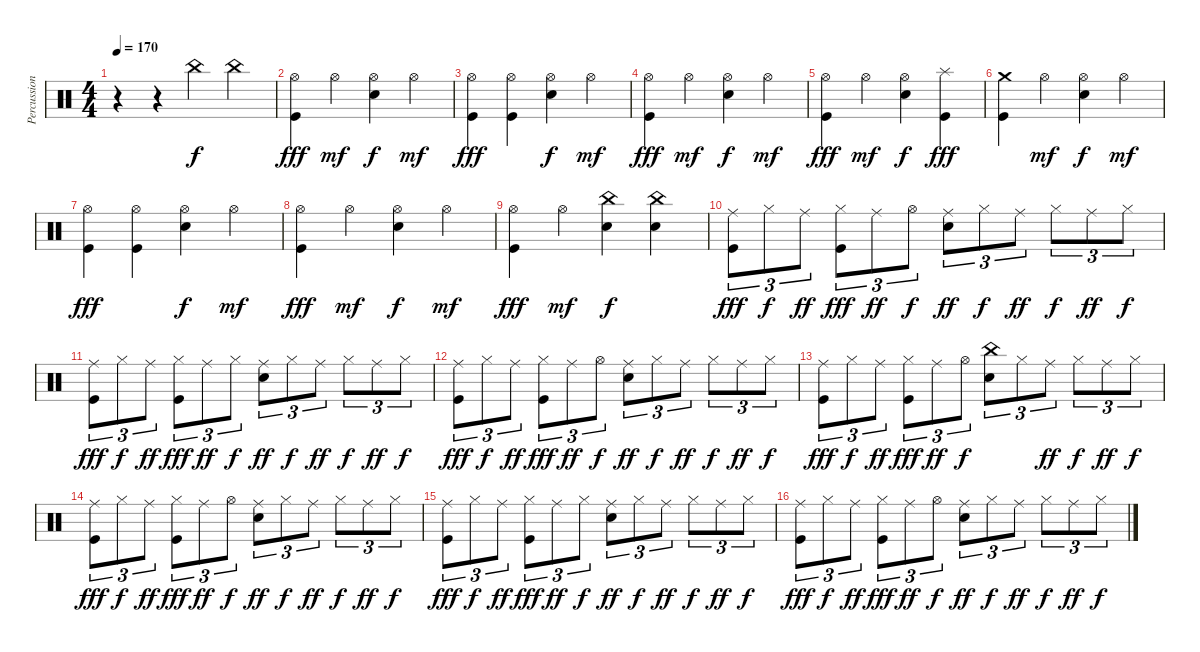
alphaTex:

\track ("Percussion" "Percussion") {instrument percussion}
\staff {score}
\articulation defaults
\ts (4 4)
\tempo 170
\clef neutral
\ks c
r.4{dy f} r.4 "China (hit)".4 "China (hit)".4 |
("Hi-Hat (open)" "Kick (hit)").4{dy fff} "Hi-Hat (open)".4{dy mf} ("Hi-Hat (open)" "Electric Snare (hit)").4{dy f} "Hi-Hat (open)".4{dy mf} |
("Hi-Hat (open)" "Kick (hit)").4{dy fff} ("Hi-Hat (open)" "Kick (hit)").4 ("Hi-Hat (open)" "Electric Snare (hit)").4{dy f} "Hi-Hat (open)".4{dy mf} |
("Hi-Hat (open)" "Kick (hit)").4{dy fff} "Hi-Hat (open)".4{dy mf} ("Hi-Hat (open)" "Electric Snare (hit)").4{dy f} "Hi-Hat (open)".4{dy mf} |
("Hi-Hat (open)" "Kick (hit)").4{dy fff} "Hi-Hat (open)".4{dy mf} ("Hi-Hat (open)" "Electric Snare (hit)").4{dy f} ("Splash (hit)" "Kick (hit)").4{dy fff} |
("Crash medium (hit)" "Kick (hit)").4 "Hi-Hat (open)".4{dy mf} ("Hi-Hat (open)" "Electric Snare (hit)").4{dy f} "Hi-Hat (open)".4{dy mf} |
("Hi-Hat (open)" "Kick (hit)").4{dy fff} ("Hi-Hat (open)" "Kick (hit)").4 ("Hi-Hat (open)" "Electric Snare (hit)").4{dy f} "Hi-Hat (open)".4{dy mf} |
("Hi-Hat (open)" "Kick (hit)").4{dy fff} "Hi-Hat (open)".4{dy mf} ("Hi-Hat (open)" "Electric Snare (hit)").4{dy f} "Hi-Hat (open)".4{dy mf} |
("Hi-Hat (open)" "Kick (hit)").4{dy fff} "Hi-Hat (open)".4{dy mf} ("China (hit)" "Electric Snare (hit)").4{dy f} ("China (hit)" "Electric Snare (hit)").4 |
("Ride (middle)" "Kick (hit)").8{tu (3 2) dy fff} "Hi-Hat (closed)".8{tu (3 2) dy f} "Ride (middle)".8{tu (3 2) dy ff} ("Hi-Hat (closed)" "Kick (hit)").8{tu (3 2) dy fff} "Ride (middle)".8{tu (3 2) dy ff} "Hi-Hat (open)".8{tu (3 2) dy f} ("Ride (middle)" "Electric Snare (hit)").8{tu (3 2) dy ff} "Hi-Hat (closed)".8{tu (3 2) dy f} "Ride (middle)".8{tu (3 2) dy ff} "Hi-Hat (closed)".8{tu (3 2) dy f} "Ride (middle)".8{tu (3 2) dy ff} "Hi-Hat (closed)".8{tu (3 2) dy f} |
("Ride (middle)" "Kick (hit)").8{tu (3 2) dy fff} "Hi-Hat (closed)".8{tu (3 2) dy f} "Ride (middle)".8{tu (3 2) dy ff} ("Hi-Hat (closed)" "Kick (hit)").8{tu (3 2) dy fff} "Ride (middle)".8{tu (3 2) dy ff} "Hi-Hat (closed)".8{tu (3 2) dy f} ("Ride (middle)" "Electric Snare (hit)").8{tu (3 2) dy ff} "Hi-Hat (closed)".8{tu (3 2) dy f} "Ride (middle)".8{tu (3 2) dy ff} "Hi-Hat (closed)".8{tu (3 2) dy f} "Ride (middle)".8{tu (3 2) dy ff} "Hi-Hat (closed)".8{tu (3 2) dy f} |
("Ride (middle)" "Kick (hit)").8{tu (3 2) dy fff} "Hi-Hat (closed)".8{tu (3 2) dy f} "Ride (middle)".8{tu (3 2) dy ff} ("Hi-Hat (closed)" "Kick (hit)").8{tu (3 2) dy fff} "Ride (middle)".8{tu (3 2) dy ff} "Hi-Hat (open)".8{tu (3 2) dy f} ("Ride (middle)" "Electric Snare (hit)").8{tu (3 2) dy ff} "Hi-Hat (closed)".8{tu (3 2) dy f} "Ride (middle)".8{tu (3 2) dy ff} "Hi-Hat (closed)".8{tu (3 2) dy f} "Ride (middle)".8{tu (3 2) dy ff} "Hi-Hat (closed)".8{tu (3 2) dy f} |
("Ride (middle)" "Kick (hit)").8{tu (3 2) dy fff} "Hi-Hat (closed)".8{tu (3 2) dy f} "Ride (middle)".8{tu (3 2) dy ff} ("Hi-Hat (closed)" "Kick (hit)").8{tu (3 2) dy fff} "Ride (middle)".8{tu (3 2) dy ff} "Hi-Hat (open)".8{tu (3 2) dy f} ("China (hit)" "Electric Snare (hit)").8{tu (3 2)} "Hi-Hat (closed)".8{tu (3 2)} "Ride (middle)".8{tu (3 2) dy ff} "Hi-Hat (closed)".8{tu (3 2) dy f} "Ride (middle)".8{tu (3 2) dy ff} "Hi-Hat (closed)".8{tu (3 2) dy f} |
("Ride (middle)" "Kick (hit)").8{tu (3 2) dy fff} "Hi-Hat (closed)".8{tu (3 2) dy f} "Ride (middle)".8{tu (3 2) dy ff} ("Hi-Hat (closed)" "Kick (hit)").8{tu (3 2) dy fff} "Ride (middle)".8{tu (3 2) dy ff} "Hi-Hat (open)".8{tu (3 2) dy f} ("Ride (middle)" "Electric Snare (hit)").8{tu (3 2) dy ff} "Hi-Hat (closed)".8{tu (3 2) dy f} "Ride (middle)".8{tu (3 2) dy ff} "Hi-Hat (closed)".8{tu (3 2) dy f} "Ride (middle)".8{tu (3 2) dy ff} "Hi-Hat (closed)".8{tu (3 2) dy f} |
("Ride (middle)" "Kick (hit)").8{tu (3 2) dy fff} "Hi-Hat (closed)".8{tu (3 2) dy f} "Ride (middle)".8{tu (3 2) dy ff} ("Hi-Hat (closed)" "Kick (hit)").8{tu (3 2) dy fff} "Ride (middle)".8{tu (3 2) dy ff} "Hi-Hat (closed)".8{tu (3 2) dy f} ("Ride (middle)" "Electric Snare (hit)").8{tu (3 2) dy ff} "Hi-Hat (closed)".8{tu (3 2) dy f} "Ride (middle)".8{tu (3 2) dy ff} "Hi-Hat (closed)".8{tu (3 2) dy f} "Ride (middle)".8{tu (3 2) dy ff} "Hi-Hat (closed)".8{tu (3 2) dy f} |
("Ride (middle)" "Kick (hit)").8{tu (3 2) dy fff} "Hi-Hat (closed)".8{tu (3 2) dy f} "Ride (middle)".8{tu (3 2) dy ff} ("Hi-Hat (closed)" "Kick (hit)").8{tu (3 2) dy fff} "Ride (middle)".8{tu (3 2) dy ff} "Hi-Hat (open)".8{tu (3 2) dy f} ("Ride (middle)" "Electric Snare (hit)").8{tu (3 2) dy ff} "Hi-Hat (closed)".8{tu (3 2) dy f} "Ride (middle)".8{tu (3 2) dy ff} "Hi-Hat (closed)".8{tu (3 2) dy f} "Ride (middle)".8{tu (3 2) dy ff} "Hi-Hat (closed)".8{tu (3 2) dy f}
